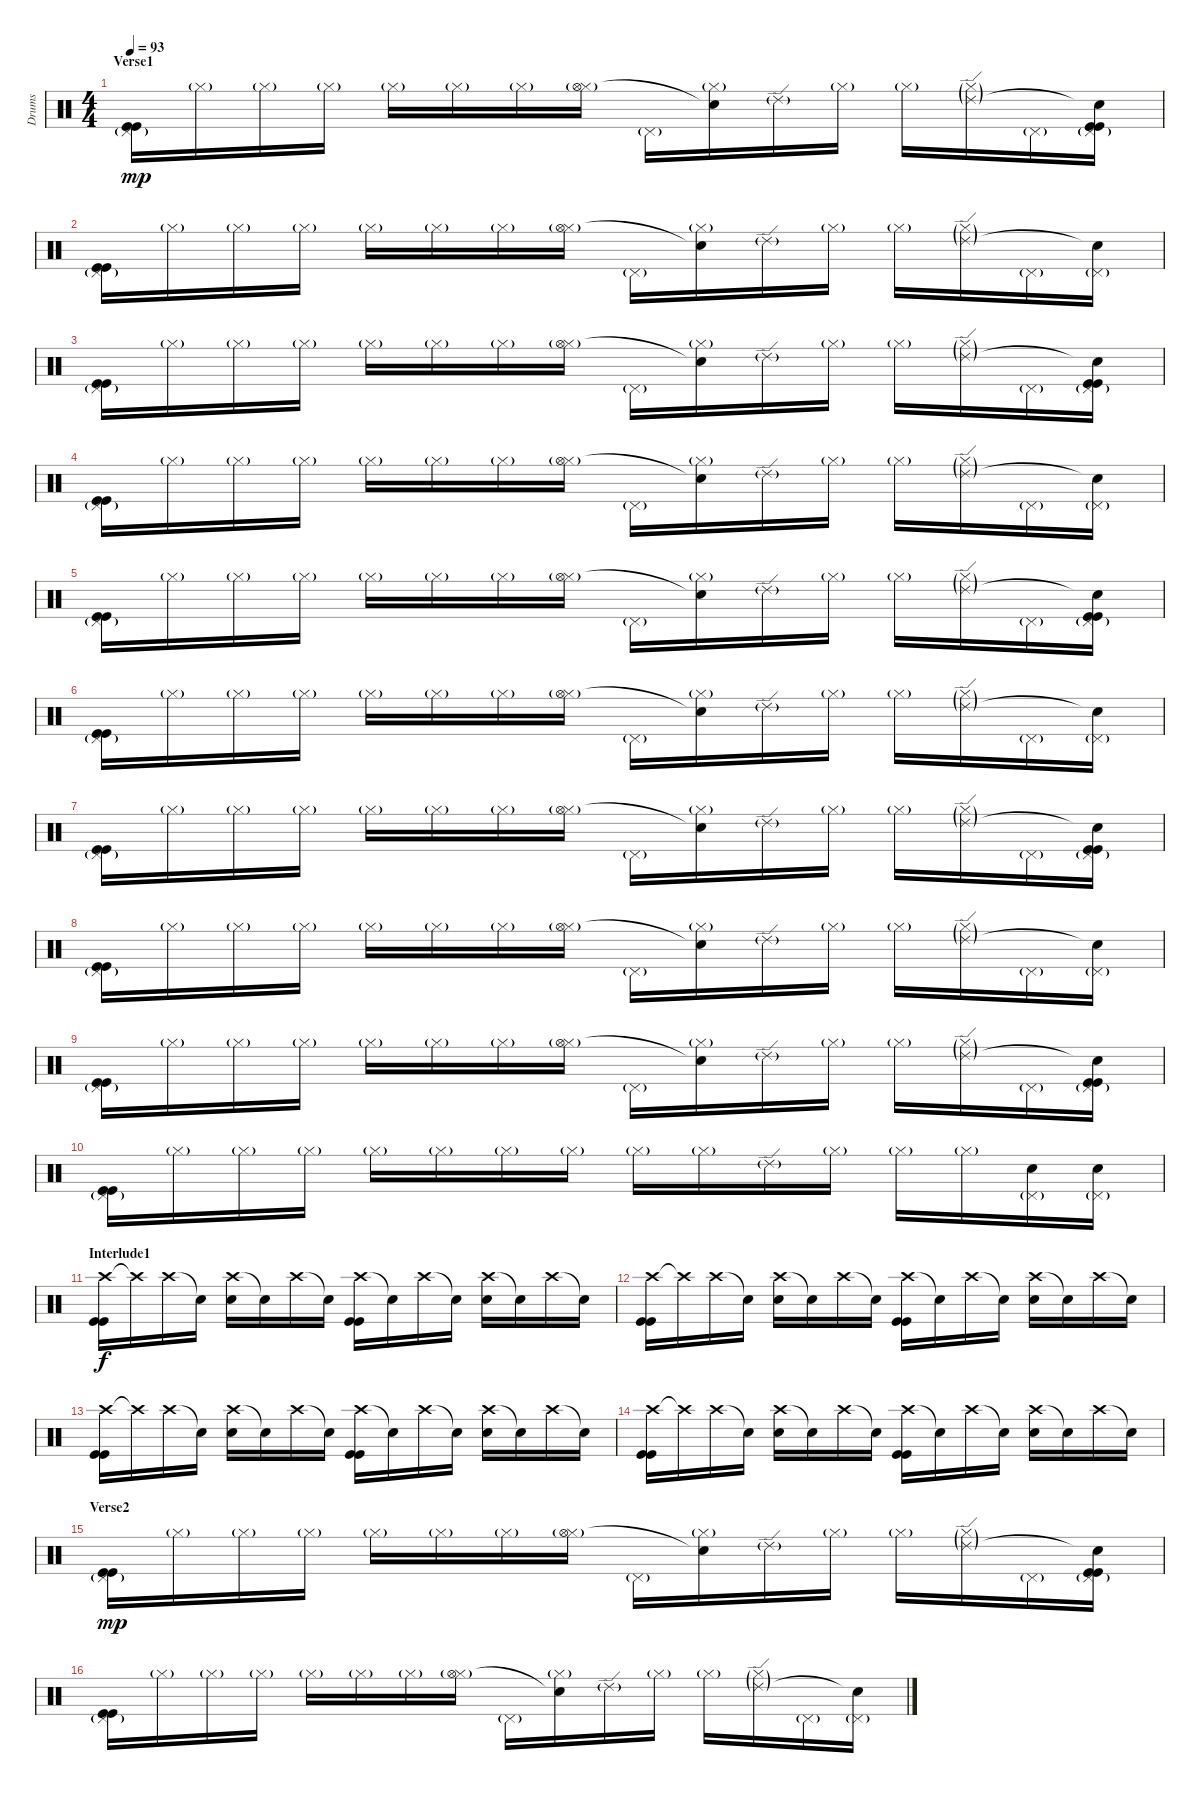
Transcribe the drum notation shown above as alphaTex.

\track ("Drums " "Drums ") {instrument percussion}
\staff {score}
\articulation defaults
\ts (4 4)
\section ("" "Verse1")
\tempo 93
\clef neutral
\ks c
("Pedal Hi-Hat (hit)"{g} "Kick (hit)" "Kick (hit)").16{dy mp} "Hi-Hat (closed)"{g}.16 "Hi-Hat (closed)"{g}.16 "Hi-Hat (closed)"{g}.16 "Hi-Hat (closed)"{g}.16 "Hi-Hat (closed)"{g}.16 "Hi-Hat (closed)"{g}.16 ("Hi-Hat (closed)"{g} "Hi-Hat (open)"{g}).16 "Pedal Hi-Hat (hit)"{g}.16 ("Hi-Hat (closed)"{g} "Snare (hit)"{t}).16 "Ride (edge) 2"{g}.16 "Hi-Hat (closed)"{g}.16 "Hi-Hat (closed)"{g}.16 ("Hi-Hat (closed)"{g} "Ride (edge) 2"{g}).16 "Pedal Hi-Hat (hit)"{g}.16 ("Pedal Hi-Hat (hit)"{g} "Snare (hit)"{t} "Kick (hit)" "Kick (hit)").16 |
("Pedal Hi-Hat (hit)"{g} "Kick (hit)" "Kick (hit)").16 "Hi-Hat (closed)"{g}.16 "Hi-Hat (closed)"{g}.16 "Hi-Hat (closed)"{g}.16 "Hi-Hat (closed)"{g}.16 "Hi-Hat (closed)"{g}.16 "Hi-Hat (closed)"{g}.16 ("Hi-Hat (closed)"{g} "Hi-Hat (open)"{g}).16 "Pedal Hi-Hat (hit)"{g}.16 ("Hi-Hat (closed)"{g} "Snare (hit)"{t}).16 "Ride (edge) 2"{g}.16 "Hi-Hat (closed)"{g}.16 "Hi-Hat (closed)"{g}.16 ("Hi-Hat (closed)"{g} "Ride (edge) 2"{g}).16 "Pedal Hi-Hat (hit)"{g}.16 ("Pedal Hi-Hat (hit)"{g} "Snare (hit)"{t}).16 |
("Pedal Hi-Hat (hit)"{g} "Kick (hit)" "Kick (hit)").16 "Hi-Hat (closed)"{g}.16 "Hi-Hat (closed)"{g}.16 "Hi-Hat (closed)"{g}.16 "Hi-Hat (closed)"{g}.16 "Hi-Hat (closed)"{g}.16 "Hi-Hat (closed)"{g}.16 ("Hi-Hat (closed)"{g} "Hi-Hat (open)"{g}).16 "Pedal Hi-Hat (hit)"{g}.16 ("Hi-Hat (closed)"{g} "Snare (hit)"{t}).16 "Ride (edge) 2"{g}.16 "Hi-Hat (closed)"{g}.16 "Hi-Hat (closed)"{g}.16 ("Hi-Hat (closed)"{g} "Ride (edge) 2"{g}).16 "Pedal Hi-Hat (hit)"{g}.16 ("Pedal Hi-Hat (hit)"{g} "Snare (hit)"{t} "Kick (hit)" "Kick (hit)").16 |
("Pedal Hi-Hat (hit)"{g} "Kick (hit)" "Kick (hit)").16 "Hi-Hat (closed)"{g}.16 "Hi-Hat (closed)"{g}.16 "Hi-Hat (closed)"{g}.16 "Hi-Hat (closed)"{g}.16 "Hi-Hat (closed)"{g}.16 "Hi-Hat (closed)"{g}.16 ("Hi-Hat (closed)"{g} "Hi-Hat (open)"{g}).16 "Pedal Hi-Hat (hit)"{g}.16 ("Hi-Hat (closed)"{g} "Snare (hit)"{t}).16 "Ride (edge) 2"{g}.16 "Hi-Hat (closed)"{g}.16 "Hi-Hat (closed)"{g}.16 ("Hi-Hat (closed)"{g} "Ride (edge) 2"{g}).16 "Pedal Hi-Hat (hit)"{g}.16 ("Pedal Hi-Hat (hit)"{g} "Snare (hit)"{t}).16 |
("Pedal Hi-Hat (hit)"{g} "Kick (hit)" "Kick (hit)").16 "Hi-Hat (closed)"{g}.16 "Hi-Hat (closed)"{g}.16 "Hi-Hat (closed)"{g}.16 "Hi-Hat (closed)"{g}.16 "Hi-Hat (closed)"{g}.16 "Hi-Hat (closed)"{g}.16 ("Hi-Hat (closed)"{g} "Hi-Hat (open)"{g}).16 "Pedal Hi-Hat (hit)"{g}.16 ("Hi-Hat (closed)"{g} "Snare (hit)"{t}).16 "Ride (edge) 2"{g}.16 "Hi-Hat (closed)"{g}.16 "Hi-Hat (closed)"{g}.16 ("Hi-Hat (closed)"{g} "Ride (edge) 2"{g}).16 "Pedal Hi-Hat (hit)"{g}.16 ("Pedal Hi-Hat (hit)"{g} "Snare (hit)"{t} "Kick (hit)" "Kick (hit)").16 |
("Pedal Hi-Hat (hit)"{g} "Kick (hit)" "Kick (hit)").16 "Hi-Hat (closed)"{g}.16 "Hi-Hat (closed)"{g}.16 "Hi-Hat (closed)"{g}.16 "Hi-Hat (closed)"{g}.16 "Hi-Hat (closed)"{g}.16 "Hi-Hat (closed)"{g}.16 ("Hi-Hat (closed)"{g} "Hi-Hat (open)"{g}).16 "Pedal Hi-Hat (hit)"{g}.16 ("Hi-Hat (closed)"{g} "Snare (hit)"{t}).16 "Ride (edge) 2"{g}.16 "Hi-Hat (closed)"{g}.16 "Hi-Hat (closed)"{g}.16 ("Hi-Hat (closed)"{g} "Ride (edge) 2"{g}).16 "Pedal Hi-Hat (hit)"{g}.16 ("Pedal Hi-Hat (hit)"{g} "Snare (hit)"{t}).16 |
("Pedal Hi-Hat (hit)"{g} "Kick (hit)" "Kick (hit)").16 "Hi-Hat (closed)"{g}.16 "Hi-Hat (closed)"{g}.16 "Hi-Hat (closed)"{g}.16 "Hi-Hat (closed)"{g}.16 "Hi-Hat (closed)"{g}.16 "Hi-Hat (closed)"{g}.16 ("Hi-Hat (closed)"{g} "Hi-Hat (open)"{g}).16 "Pedal Hi-Hat (hit)"{g}.16 ("Hi-Hat (closed)"{g} "Snare (hit)"{t}).16 "Ride (edge) 2"{g}.16 "Hi-Hat (closed)"{g}.16 "Hi-Hat (closed)"{g}.16 ("Hi-Hat (closed)"{g} "Ride (edge) 2"{g}).16 "Pedal Hi-Hat (hit)"{g}.16 ("Pedal Hi-Hat (hit)"{g} "Snare (hit)"{t} "Kick (hit)" "Kick (hit)").16 |
("Pedal Hi-Hat (hit)"{g} "Kick (hit)" "Kick (hit)").16 "Hi-Hat (closed)"{g}.16 "Hi-Hat (closed)"{g}.16 "Hi-Hat (closed)"{g}.16 "Hi-Hat (closed)"{g}.16 "Hi-Hat (closed)"{g}.16 "Hi-Hat (closed)"{g}.16 ("Hi-Hat (closed)"{g} "Hi-Hat (open)"{g}).16 "Pedal Hi-Hat (hit)"{g}.16 ("Hi-Hat (closed)"{g} "Snare (hit)"{t}).16 "Ride (edge) 2"{g}.16 "Hi-Hat (closed)"{g}.16 "Hi-Hat (closed)"{g}.16 ("Hi-Hat (closed)"{g} "Ride (edge) 2"{g}).16 "Pedal Hi-Hat (hit)"{g}.16 ("Pedal Hi-Hat (hit)"{g} "Snare (hit)"{t}).16 |
("Pedal Hi-Hat (hit)"{g} "Kick (hit)" "Kick (hit)").16 "Hi-Hat (closed)"{g}.16 "Hi-Hat (closed)"{g}.16 "Hi-Hat (closed)"{g}.16 "Hi-Hat (closed)"{g}.16 "Hi-Hat (closed)"{g}.16 "Hi-Hat (closed)"{g}.16 ("Hi-Hat (closed)"{g} "Hi-Hat (open)"{g}).16 "Pedal Hi-Hat (hit)"{g}.16 ("Hi-Hat (closed)"{g} "Snare (hit)"{t}).16 "Ride (edge) 2"{g}.16 "Hi-Hat (closed)"{g}.16 "Hi-Hat (closed)"{g}.16 ("Hi-Hat (closed)"{g} "Ride (edge) 2"{g}).16 "Pedal Hi-Hat (hit)"{g}.16 ("Pedal Hi-Hat (hit)"{g} "Snare (hit)"{t} "Kick (hit)" "Kick (hit)").16 |
("Pedal Hi-Hat (hit)"{g} "Kick (hit)" "Kick (hit)").16 "Hi-Hat (closed)"{g}.16 "Hi-Hat (closed)"{g}.16 "Hi-Hat (closed)"{g}.16 "Hi-Hat (closed)"{g}.16 "Hi-Hat (closed)"{g}.16 "Hi-Hat (closed)"{g}.16 "Hi-Hat (closed)"{g}.16 "Hi-Hat (closed)"{g}.16 "Hi-Hat (closed)"{g}.16 "Ride (edge) 2"{g}.16 "Hi-Hat (closed)"{g}.16 "Hi-Hat (closed)"{g}.16 "Hi-Hat (closed)"{g}.16 ("Pedal Hi-Hat (hit)"{g} "Snare (hit) 2").16 ("Pedal Hi-Hat (hit)"{g} "Snare (hit) 2").16 |
\section ("" "Interlude1")
("Crash high (hit)" "Kick (hit)" "Kick (hit)").16{dy f} "Crash high (hit)"{t}.16 "Crash high (hit)".16 "Snare (hit)"{t}.16 ("Crash high (hit)" "Snare (hit) 2").16 "Snare (hit)"{t}.16 "Crash high (hit)".16 "Snare (hit)"{t}.16 ("Crash high (hit)" "Kick (hit)" "Kick (hit)").16 "Snare (hit)"{t}.16 "Crash high (hit)".16 "Snare (hit)"{t}.16 ("Crash high (hit)" "Snare (hit) 2").16 "Snare (hit)"{t}.16 "Crash high (hit)".16 "Snare (hit)"{t}.16 |
("Crash high (hit)" "Kick (hit)" "Kick (hit)").16 "Crash high (hit)"{t}.16 "Crash high (hit)".16 "Snare (hit)"{t}.16 ("Crash high (hit)" "Snare (hit) 2").16 "Snare (hit)"{t}.16 "Crash high (hit)".16 "Snare (hit)"{t}.16 ("Crash high (hit)" "Kick (hit)" "Kick (hit)").16 "Snare (hit)"{t}.16 "Crash high (hit)".16 "Snare (hit)"{t}.16 ("Crash high (hit)" "Snare (hit) 2").16 "Snare (hit)"{t}.16 "Crash high (hit)".16 "Snare (hit)"{t}.16 |
("Crash high (hit)" "Kick (hit)" "Kick (hit)").16 "Crash high (hit)"{t}.16 "Crash high (hit)".16 "Snare (hit)"{t}.16 ("Crash high (hit)" "Snare (hit) 2").16 "Snare (hit)"{t}.16 "Crash high (hit)".16 "Snare (hit)"{t}.16 ("Crash high (hit)" "Kick (hit)" "Kick (hit)").16 "Snare (hit)"{t}.16 "Crash high (hit)".16 "Snare (hit)"{t}.16 ("Crash high (hit)" "Snare (hit) 2").16 "Snare (hit)"{t}.16 "Crash high (hit)".16 "Snare (hit)"{t}.16 |
("Crash high (hit)" "Kick (hit)" "Kick (hit)").16 "Crash high (hit)"{t}.16 "Crash high (hit)".16 "Snare (hit)"{t}.16 ("Crash high (hit)" "Snare (hit) 2").16 "Snare (hit)"{t}.16 "Crash high (hit)".16 "Snare (hit)"{t}.16 ("Crash high (hit)" "Kick (hit)" "Kick (hit)").16 "Snare (hit)"{t}.16 "Crash high (hit)".16 "Snare (hit)"{t}.16 ("Crash high (hit)" "Snare (hit) 2").16 "Snare (hit)"{t}.16 "Crash high (hit)".16 "Snare (hit)"{t}.16 |
\section ("" "Verse2")
("Pedal Hi-Hat (hit)"{g} "Kick (hit)" "Kick (hit)").16{dy mp} "Hi-Hat (closed)"{g}.16 "Hi-Hat (closed)"{g}.16 "Hi-Hat (closed)"{g}.16 "Hi-Hat (closed)"{g}.16 "Hi-Hat (closed)"{g}.16 "Hi-Hat (closed)"{g}.16 ("Hi-Hat (closed)"{g} "Hi-Hat (open)"{g}).16 "Pedal Hi-Hat (hit)"{g}.16 ("Hi-Hat (closed)"{g} "Snare (hit)"{t}).16 "Ride (edge) 2"{g}.16 "Hi-Hat (closed)"{g}.16 "Hi-Hat (closed)"{g}.16 ("Hi-Hat (closed)"{g} "Ride (edge) 2"{g}).16 "Pedal Hi-Hat (hit)"{g}.16 ("Pedal Hi-Hat (hit)"{g} "Snare (hit)"{t} "Kick (hit)" "Kick (hit)").16 |
("Pedal Hi-Hat (hit)"{g} "Kick (hit)" "Kick (hit)").16 "Hi-Hat (closed)"{g}.16 "Hi-Hat (closed)"{g}.16 "Hi-Hat (closed)"{g}.16 "Hi-Hat (closed)"{g}.16 "Hi-Hat (closed)"{g}.16 "Hi-Hat (closed)"{g}.16 ("Hi-Hat (closed)"{g} "Hi-Hat (open)"{g}).16 "Pedal Hi-Hat (hit)"{g}.16 ("Hi-Hat (closed)"{g} "Snare (hit)"{t}).16 "Ride (edge) 2"{g}.16 "Hi-Hat (closed)"{g}.16 "Hi-Hat (closed)"{g}.16 ("Hi-Hat (closed)"{g} "Ride (edge) 2"{g}).16 "Pedal Hi-Hat (hit)"{g}.16 ("Pedal Hi-Hat (hit)"{g} "Snare (hit)"{t}).16
